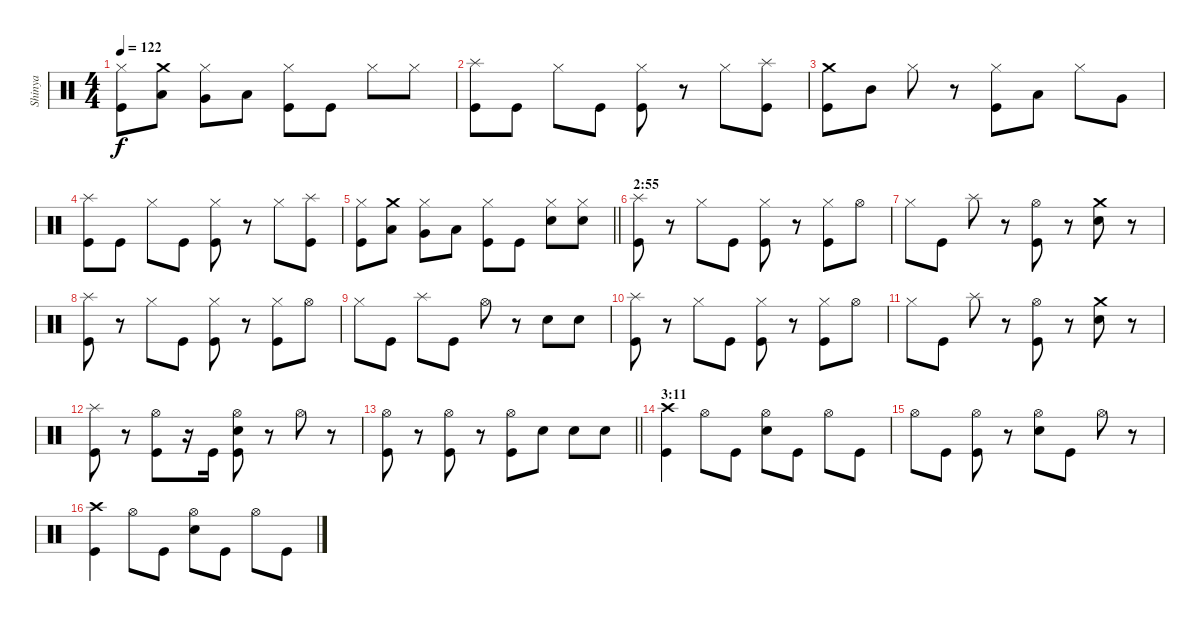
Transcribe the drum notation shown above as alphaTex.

\track ("Shinya" "Shinya") {instrument percussion}
\staff {score}
\articulation defaults
\ts (4 4)
\tempo 122
\clef neutral
\ks c
("Hi-Hat (closed)" "Kick (hit)").8{dy f} ("Crash medium (hit)" "Low Floor Tom (hit)").8 ("Hi-Hat (closed)" "Very Low Tom (hit)").8 "Low Tom (hit)".8 ("Hi-Hat (closed)" "Kick (hit)").8 "Kick (hit)".8 "Hi-Hat (closed)".8 "Hi-Hat (closed)".8 |
("Splash (hit)" "Kick (hit)").8 "Kick (hit)".8 "Hi-Hat (closed)".8 "Kick (hit)".8 ("Hi-Hat (closed)" "Kick (hit)").8 r.8 "Hi-Hat (closed)".8 ("Splash (hit)" "Kick (hit)").8 |
("Crash medium (hit)" "Kick (hit)").8 "Mid Tom (hit)".8 "Hi-Hat (closed)".8 r.8 ("Hi-Hat (closed)" "Kick (hit)").8 "Low Tom (hit)".8 "Hi-Hat (closed)".8 "Very Low Tom (hit)".8 |
("Splash (hit)" "Kick (hit)").8 "Kick (hit)".8 "Hi-Hat (closed)".8 "Kick (hit)".8 ("Hi-Hat (closed)" "Kick (hit)").8 r.8 "Hi-Hat (closed)".8 ("Splash (hit)" "Kick (hit)").8 |
\barLineRight lightlight
("Hi-Hat (closed)" "Kick (hit)").8 ("Crash medium (hit)" "Low Floor Tom (hit)").8 ("Hi-Hat (closed)" "Very Low Tom (hit)").8 "Low Tom (hit)".8 ("Hi-Hat (closed)" "Kick (hit)").8 "Kick (hit)".8 ("Hi-Hat (closed)" "Snare (hit) 2").8 ("Hi-Hat (closed)" "Snare (hit) 2").8 |
\section ("" "2:55")
("Splash (hit)" "Kick (hit)").8 r.8 "Hi-Hat (closed)".8 "Kick (hit)".8 ("Hi-Hat (closed)" "Kick (hit)").8 r.8 ("Hi-Hat (closed)" "Kick (hit)").8 "Hi-Hat (open)".8 |
"Hi-Hat (closed)".8 "Kick (hit)".8 "Splash (hit)".8 r.8 ("Hi-Hat (open)" "Kick (hit)").8 r.8 ("Crash medium (hit)" "Snare (hit) 2").8 r.8 |
("Splash (hit)" "Kick (hit)").8 r.8 "Hi-Hat (closed)".8 "Kick (hit)".8 ("Hi-Hat (closed)" "Kick (hit)").8 r.8 ("Hi-Hat (closed)" "Kick (hit)").8 "Hi-Hat (open)".8 |
"Hi-Hat (closed)".8 "Kick (hit)".8 "Splash (hit)".8 "Kick (hit)".8 "Hi-Hat (open)".8 r.8 "Snare (hit) 2".8 "Snare (hit) 2".8 |
("Splash (hit)" "Kick (hit)").8 r.8 "Hi-Hat (closed)".8 "Kick (hit)".8 ("Hi-Hat (closed)" "Kick (hit)").8 r.8 ("Hi-Hat (closed)" "Kick (hit)").8 "Hi-Hat (open)".8 |
"Hi-Hat (closed)".8 "Kick (hit)".8 "Splash (hit)".8 r.8 ("Hi-Hat (open)" "Kick (hit)").8 r.8 ("Crash medium (hit)" "Snare (hit) 2").8 r.8 |
("Splash (hit)" "Kick (hit)").8 r.8 ("Hi-Hat (open)" "Kick (hit)").8 r.16 "Kick (hit)".16 ("Hi-Hat (open)" "Snare (hit) 2" "Kick (hit)").8 r.8 "Hi-Hat (open)".8 r.8 |
\barLineRight lightlight
("Hi-Hat (open)" "Kick (hit)").8 r.8 ("Hi-Hat (open)" "Kick (hit)").8 r.8 ("Hi-Hat (open)" "Kick (hit)").8 "Snare (hit) 2".8 "Snare (hit) 2".8 "Snare (hit) 2".8 |
\section ("" "3:11")
("Crash high (hit)" "Kick (hit)").4 "Hi-Hat (open)".8 "Kick (hit)".8 ("Hi-Hat (open)" "Snare (hit) 2").8 "Kick (hit)".8 "Hi-Hat (open)".8 "Kick (hit)".8 |
"Hi-Hat (open)".8 "Kick (hit)".8 ("Hi-Hat (open)" "Kick (hit)").8 r.8 ("Hi-Hat (open)" "Snare (hit) 2").8 "Kick (hit)".8 "Hi-Hat (open)".8 r.8 |
("Crash high (hit)" "Kick (hit)").4 "Hi-Hat (open)".8 "Kick (hit)".8 ("Hi-Hat (open)" "Snare (hit) 2").8 "Kick (hit)".8 "Hi-Hat (open)".8 "Kick (hit)".8
